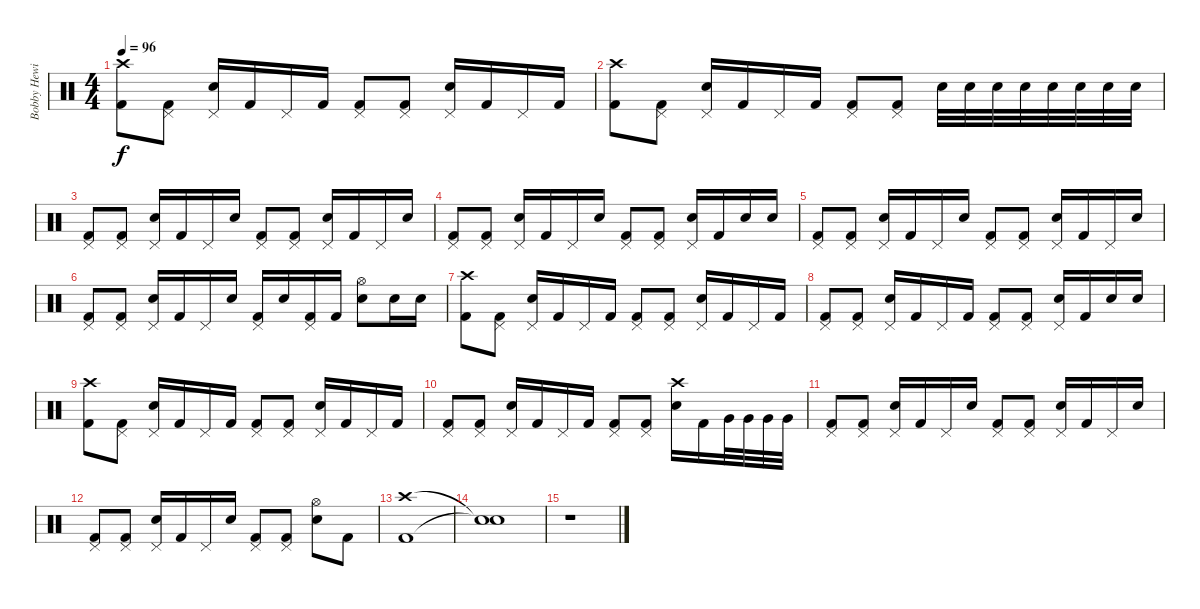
\track ("Bobby Hewitt (Elec. Drums)" "Bobby Hewi") {instrument percussion}
\staff {score}
\articulation defaults
\ts (4 4)
\tempo 96
\clef neutral
\ks c
("Crash high (hit)" "Kick (hit) 2").8{dy f} ("Pedal Hi-Hat (hit)" "Kick (hit) 2").8 ("Pedal Hi-Hat (hit)" "Electric Snare (hit)").16 "Kick (hit) 2".16 "Pedal Hi-Hat (hit)".16 "Kick (hit) 2".16 ("Pedal Hi-Hat (hit)" "Kick (hit) 2").8 ("Pedal Hi-Hat (hit)" "Kick (hit) 2").8 ("Pedal Hi-Hat (hit)" "Electric Snare (hit)").16 "Kick (hit) 2".16 "Pedal Hi-Hat (hit)".16 "Kick (hit) 2".16 |
("Crash high (hit)" "Kick (hit) 2").8 ("Pedal Hi-Hat (hit)" "Kick (hit) 2").8 ("Pedal Hi-Hat (hit)" "Electric Snare (hit)").16 "Kick (hit) 2".16 "Pedal Hi-Hat (hit)".16 "Kick (hit) 2".16 ("Pedal Hi-Hat (hit)" "Kick (hit) 2").8 ("Pedal Hi-Hat (hit)" "Kick (hit) 2").8 "Electric Snare (hit)".32 "Electric Snare (hit)".32 "Electric Snare (hit)".32 "Electric Snare (hit)".32 "Electric Snare (hit)".32 "Electric Snare (hit)".32 "Electric Snare (hit)".32 "Electric Snare (hit)".32 |
("Pedal Hi-Hat (hit)" "Kick (hit) 2").8 ("Pedal Hi-Hat (hit)" "Kick (hit) 2").8 ("Pedal Hi-Hat (hit)" "Electric Snare (hit)").16 "Kick (hit) 2".16 "Pedal Hi-Hat (hit)".16 "Electric Snare (hit)".16 ("Pedal Hi-Hat (hit)" "Kick (hit) 2").8 ("Pedal Hi-Hat (hit)" "Kick (hit) 2").8 ("Pedal Hi-Hat (hit)" "Electric Snare (hit)").16 "Kick (hit) 2".16 "Pedal Hi-Hat (hit)".16 "Electric Snare (hit)".16 |
("Pedal Hi-Hat (hit)" "Kick (hit) 2").8 ("Pedal Hi-Hat (hit)" "Kick (hit) 2").8 ("Pedal Hi-Hat (hit)" "Electric Snare (hit)").16 "Kick (hit) 2".16 "Pedal Hi-Hat (hit)".16 "Electric Snare (hit)".16 ("Pedal Hi-Hat (hit)" "Kick (hit) 2").8 ("Pedal Hi-Hat (hit)" "Kick (hit) 2").8 ("Pedal Hi-Hat (hit)" "Electric Snare (hit)").16 "Kick (hit) 2".16 "Electric Snare (hit)".16 "Electric Snare (hit)".16 |
("Pedal Hi-Hat (hit)" "Kick (hit) 2").8 ("Pedal Hi-Hat (hit)" "Kick (hit) 2").8 ("Pedal Hi-Hat (hit)" "Electric Snare (hit)").16 "Kick (hit) 2".16 "Pedal Hi-Hat (hit)".16 "Electric Snare (hit)".16 ("Pedal Hi-Hat (hit)" "Kick (hit) 2").8 ("Pedal Hi-Hat (hit)" "Kick (hit) 2").8 ("Pedal Hi-Hat (hit)" "Electric Snare (hit)").16 "Kick (hit) 2".16 "Pedal Hi-Hat (hit)".16 "Electric Snare (hit)".16 |
("Pedal Hi-Hat (hit)" "Kick (hit) 2").8 ("Pedal Hi-Hat (hit)" "Kick (hit) 2").8 ("Pedal Hi-Hat (hit)" "Electric Snare (hit)").16 "Kick (hit) 2".16 "Pedal Hi-Hat (hit)".16 "Electric Snare (hit)".16 ("Pedal Hi-Hat (hit)" "Kick (hit) 2").16 "Electric Snare (hit)".16 ("Pedal Hi-Hat (hit)" "Kick (hit) 2").16 "Kick (hit) 2".16 ("Hi-Hat (open)" "Electric Snare (hit)").8 "Electric Snare (hit)".16 "Electric Snare (hit)".16 |
("Crash high (hit)" "Kick (hit) 2").8 ("Pedal Hi-Hat (hit)" "Kick (hit) 2").8 ("Pedal Hi-Hat (hit)" "Electric Snare (hit)").16 "Kick (hit) 2".16 "Pedal Hi-Hat (hit)".16 "Kick (hit) 2".16 ("Pedal Hi-Hat (hit)" "Kick (hit) 2").8 ("Pedal Hi-Hat (hit)" "Kick (hit) 2").8 ("Pedal Hi-Hat (hit)" "Electric Snare (hit)").16 "Kick (hit) 2".16 "Pedal Hi-Hat (hit)".16 "Kick (hit) 2".16 |
("Pedal Hi-Hat (hit)" "Kick (hit) 2").8 ("Pedal Hi-Hat (hit)" "Kick (hit) 2").8 ("Pedal Hi-Hat (hit)" "Electric Snare (hit)").16 "Kick (hit) 2".16 "Pedal Hi-Hat (hit)".16 "Kick (hit) 2".16 ("Pedal Hi-Hat (hit)" "Kick (hit) 2").8 ("Pedal Hi-Hat (hit)" "Kick (hit) 2").8 ("Pedal Hi-Hat (hit)" "Electric Snare (hit)").16 "Kick (hit) 2".16 "Electric Snare (hit)".16 "Electric Snare (hit)".16 |
("Crash high (hit)" "Kick (hit) 2").8 ("Pedal Hi-Hat (hit)" "Kick (hit) 2").8 ("Pedal Hi-Hat (hit)" "Electric Snare (hit)").16 "Kick (hit) 2".16 "Pedal Hi-Hat (hit)".16 "Kick (hit) 2".16 ("Pedal Hi-Hat (hit)" "Kick (hit) 2").8 ("Pedal Hi-Hat (hit)" "Kick (hit) 2").8 ("Pedal Hi-Hat (hit)" "Electric Snare (hit)").16 "Kick (hit) 2".16 "Pedal Hi-Hat (hit)".16 "Kick (hit) 2".16 |
("Pedal Hi-Hat (hit)" "Kick (hit) 2").8 ("Pedal Hi-Hat (hit)" "Kick (hit) 2").8 ("Pedal Hi-Hat (hit)" "Electric Snare (hit)").16 "Kick (hit) 2".16 "Pedal Hi-Hat (hit)".16 "Kick (hit) 2".16 ("Pedal Hi-Hat (hit)" "Kick (hit) 2").8 ("Pedal Hi-Hat (hit)" "Kick (hit) 2").8 ("Crash high (hit)" "Electric Snare (hit)").16 "Kick (hit) 2".16 "Very Low Tom (hit)".32 "Very Low Tom (hit)".32 "Very Low Tom (hit)".32 "Very Low Tom (hit)".32 |
("Pedal Hi-Hat (hit)" "Kick (hit) 2").8 ("Pedal Hi-Hat (hit)" "Kick (hit) 2").8 ("Pedal Hi-Hat (hit)" "Electric Snare (hit)").16 "Kick (hit) 2".16 "Pedal Hi-Hat (hit)".16 "Electric Snare (hit)".16 ("Pedal Hi-Hat (hit)" "Kick (hit) 2").8 ("Pedal Hi-Hat (hit)" "Kick (hit) 2").8 ("Pedal Hi-Hat (hit)" "Electric Snare (hit)").16 "Kick (hit) 2".16 "Pedal Hi-Hat (hit)".16 "Electric Snare (hit)".16 |
("Pedal Hi-Hat (hit)" "Kick (hit) 2").8 ("Pedal Hi-Hat (hit)" "Kick (hit) 2").8 ("Pedal Hi-Hat (hit)" "Electric Snare (hit)").16 "Kick (hit) 2".16 "Pedal Hi-Hat (hit)".16 "Electric Snare (hit)".16 ("Pedal Hi-Hat (hit)" "Kick (hit) 2").8 ("Pedal Hi-Hat (hit)" "Kick (hit) 2").8 ("Hi-Hat (open)" "Electric Snare (hit)").8 "Kick (hit) 2".8 |
("Crash high (hit)" "Kick (hit) 2").1 |
("Snare (hit)"{t} "Snare (hit)"{t}).1 |
r.1
